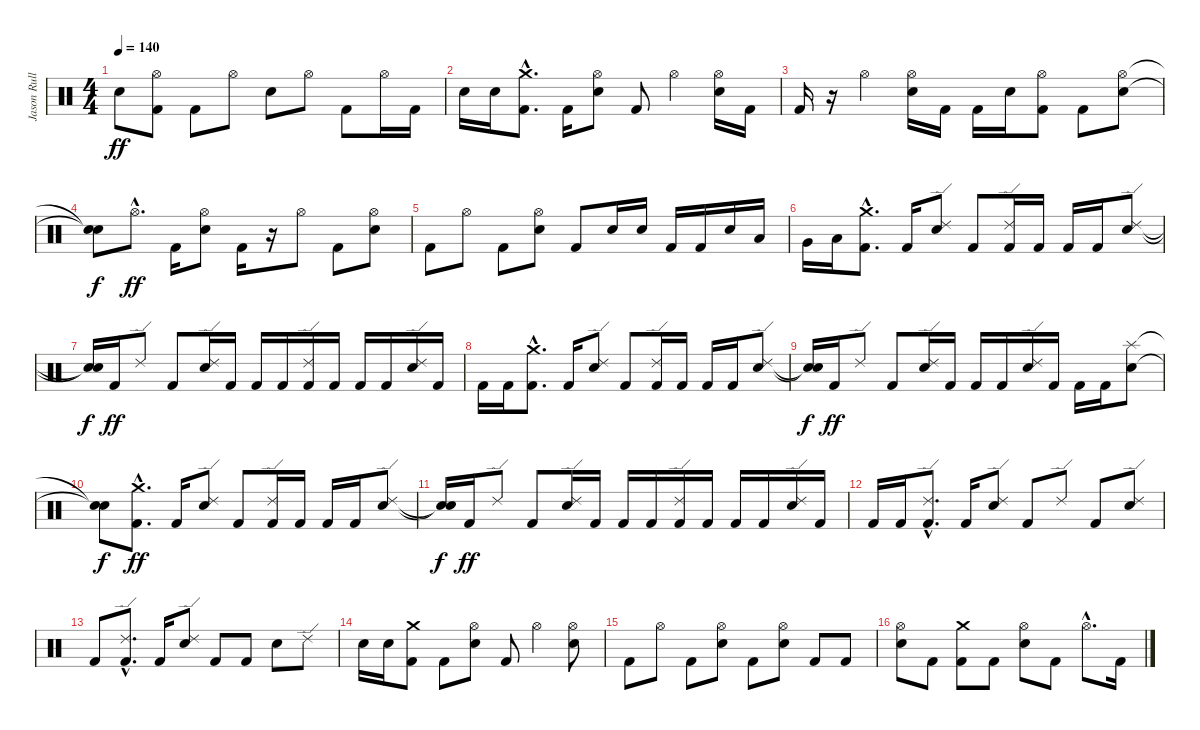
\track ("Jason Rullo" "Jason Rull") {instrument percussion}
\staff {score}
\articulation defaults
\ts (4 4)
\tempo 140
\clef neutral
\ks c "Electric Snare (hit)".8{dy ff}
("Kick (hit) 2" "Hi-Hat (open)").8 "Kick (hit) 2".8 "Hi-Hat (open)".8 "Electric Snare (hit)".8 "Hi-Hat (open)".8 "Kick (hit) 2".8 "Hi-Hat (open)".16 "Kick (hit) 2".16 |
"Electric Snare (hit)".16 "Electric Snare (hit)".16 ("Crash medium (hit)"{hac} "Kick (hit) 2"{hac}).8{d} "Kick (hit) 2".16 ("Electric Snare (hit)" "Hi-Hat (open)").8 "Kick (hit) 2".8 "Hi-Hat (open)".4 ("Electric Snare (hit)" "Hi-Hat (open)").16 "Kick (hit) 2".16 |
"Kick (hit) 2".16 r.16 "Hi-Hat (open)".4 ("Electric Snare (hit)" "Hi-Hat (open)").16 "Kick (hit) 2".16 "Kick (hit) 2".16 "Electric Snare (hit)".16 ("Hi-Hat (open)" "Kick (hit) 2").8 "Kick (hit) 2".8 ("Electric Snare (hit)" "Hi-Hat (open)").8 |
("Snare (hit)"{t} "Snare (hit)"{t}).8{dy f} "Hi-Hat (open)"{hac}.8{d dy ff} "Kick (hit) 2".16 ("Electric Snare (hit)" "Hi-Hat (open)").8 "Kick (hit) 2".16 r.16 "Hi-Hat (open)".8 "Kick (hit) 2".8 ("Electric Snare (hit)" "Hi-Hat (open)").8 |
"Kick (hit) 2".8 "Hi-Hat (open)".8 "Kick (hit) 2".8 ("Electric Snare (hit)" "Hi-Hat (open)").8 "Kick (hit) 2".8 "Electric Snare (hit)".16 "Electric Snare (hit)".16 "Kick (hit) 2".16 "Kick (hit) 2".16 "Electric Snare (hit)".16 "Low Tom (hit)".16 |
"Very Low Tom (hit)".16 "Low Floor Tom (hit)".16 ("Crash medium (hit)"{hac} "Kick (hit) 2"{hac}).8{d} "Kick (hit) 2".16 ("Electric Snare (hit)" "Ride (edge) 2").8 "Kick (hit) 2".8 ("Ride (edge) 2" "Kick (hit) 2").16 "Kick (hit) 2".16 "Kick (hit) 2".16 "Kick (hit) 2".16 ("Electric Snare (hit)" "Ride (edge) 2").8 |
("Snare (hit)"{t} "Snare (hit)"{t}).16{dy f} "Kick (hit) 2".16{dy ff} "Ride (edge) 2".8 "Kick (hit) 2".8 ("Electric Snare (hit)" "Ride (edge) 2").16 "Kick (hit) 2".16 "Kick (hit) 2".16 "Kick (hit) 2".16 ("Ride (edge) 2" "Kick (hit) 2").16 "Kick (hit) 2".16 "Kick (hit) 2".16 "Kick (hit) 2".16 ("Electric Snare (hit)" "Ride (edge) 2").16 "Kick (hit) 2".16 |
"Kick (hit) 2".16 "Kick (hit) 2".16 ("Crash medium (hit)"{hac} "Kick (hit) 2"{hac}).8{d} "Kick (hit) 2".16 ("Electric Snare (hit)" "Ride (edge) 2").8 "Kick (hit) 2".8 ("Ride (edge) 2" "Kick (hit) 2").16 "Kick (hit) 2".16 "Kick (hit) 2".16 "Kick (hit) 2".16 ("Electric Snare (hit)" "Ride (edge) 2").8 |
("Snare (hit)"{t} "Snare (hit)"{t}).16{dy f} "Kick (hit) 2".16{dy ff} "Ride (edge) 2".8 "Kick (hit) 2".8 ("Electric Snare (hit)" "Ride (edge) 2").16 "Kick (hit) 2".16 "Kick (hit) 2".16 "Kick (hit) 2".16 ("Electric Snare (hit)" "Ride (edge) 2").16 "Kick (hit) 2".16 "Kick (hit) 2".16 "Kick (hit) 2".16 ("Electric Snare (hit)" "Splash (hit)").8 |
("Snare (hit)"{t} "Snare (hit)"{t}).8{dy f} ("Crash medium (hit)"{hac} "Kick (hit) 2"{hac}).8{d dy ff} "Kick (hit) 2".16 ("Electric Snare (hit)" "Ride (edge) 2").8 "Kick (hit) 2".8 ("Ride (edge) 2" "Kick (hit) 2").16 "Kick (hit) 2".16 "Kick (hit) 2".16 "Kick (hit) 2".16 ("Electric Snare (hit)" "Ride (edge) 2").8 |
("Snare (hit)"{t} "Snare (hit)"{t}).16{dy f} "Kick (hit) 2".16{dy ff} "Ride (edge) 2".8 "Kick (hit) 2".8 ("Electric Snare (hit)" "Ride (edge) 2").16 "Kick (hit) 2".16 "Kick (hit) 2".16 "Kick (hit) 2".16 ("Ride (edge) 2" "Kick (hit) 2").16 "Kick (hit) 2".16 "Kick (hit) 2".16 "Kick (hit) 2".16 ("Electric Snare (hit)" "Ride (edge) 2").16 "Kick (hit) 2".16 |
"Kick (hit) 2".16 "Kick (hit) 2".16 ("Kick (hit) 2"{hac} "Ride (edge) 2"{hac}).8{d} "Kick (hit) 2".16 ("Electric Snare (hit)" "Ride (edge) 2").8 "Kick (hit) 2".8 "Ride (edge) 2".8 "Kick (hit) 2".8 ("Electric Snare (hit)" "Ride (edge) 2").8 |
"Kick (hit) 2".8 ("Kick (hit) 2"{hac} "Ride (edge) 2"{hac}).8{d} "Kick (hit) 2".16 ("Electric Snare (hit)" "Ride (edge) 2").8 "Kick (hit) 2".8 "Kick (hit) 2".8 "Electric Snare (hit)".8 "Ride (edge) 2".8 |
"Electric Snare (hit)".16 "Electric Snare (hit)".16 ("Crash medium (hit)" "Kick (hit) 2").8 "Kick (hit) 2".8 ("Electric Snare (hit)" "Hi-Hat (open)").8 "Kick (hit) 2".8 "Hi-Hat (open)".4 ("Electric Snare (hit)" "Hi-Hat (open)").8 |
"Kick (hit) 2".8 "Hi-Hat (open)".8 "Kick (hit) 2".8 ("Electric Snare (hit)" "Hi-Hat (open)").8 "Kick (hit) 2".8 ("Electric Snare (hit)" "Hi-Hat (open)").8 "Kick (hit) 2".8 "Kick (hit) 2".8 |
("Electric Snare (hit)" "Hi-Hat (open)").8 "Kick (hit) 2".8 ("Crash medium (hit)" "Kick (hit) 2").8 "Kick (hit) 2".8 ("Electric Snare (hit)" "Hi-Hat (open)").8 "Kick (hit) 2".8 "Hi-Hat (open)"{hac}.8{d} "Kick (hit) 2".16
